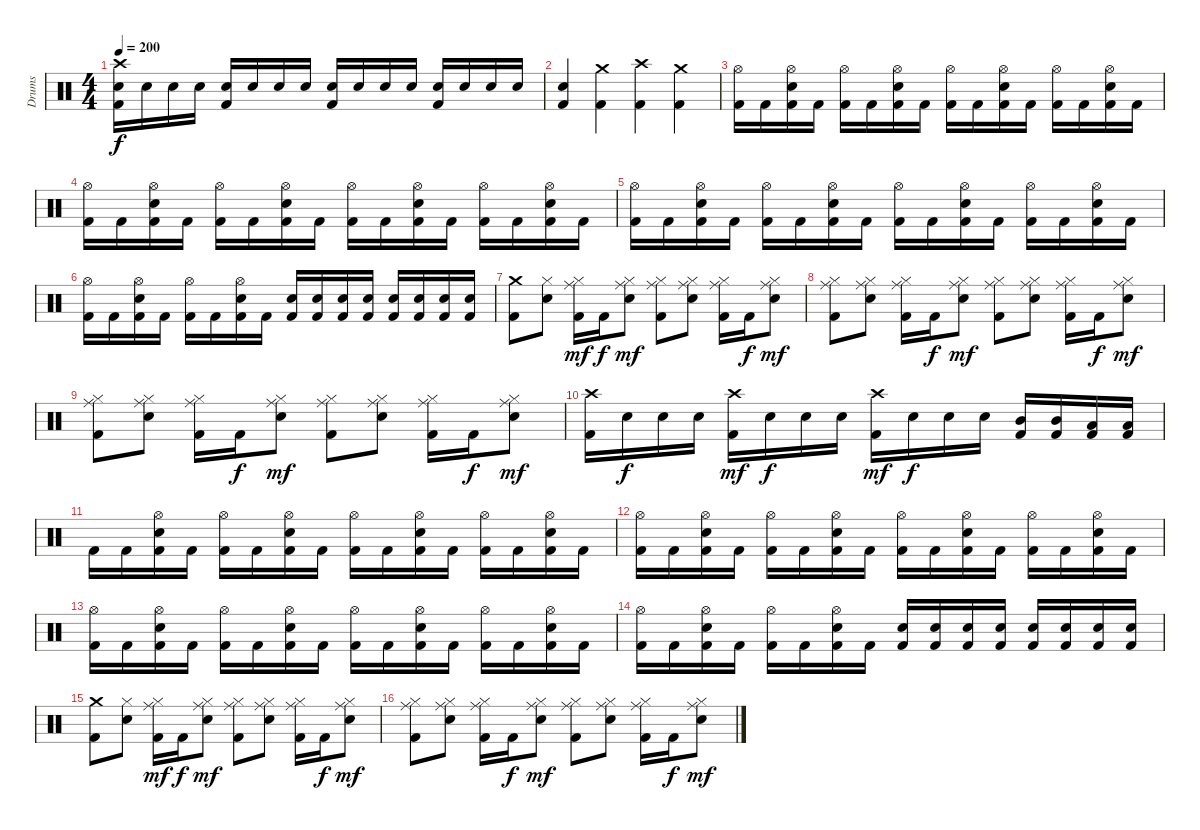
\track ("Drums" "Drums") {instrument percussion}
\staff {score}
\articulation defaults
\ts (4 4)
\tempo 200
\clef neutral
\ks c
("Crash high (hit)" "Snare (hit) 2" "Kick (hit) 2").16{dy f} "Snare (hit) 2".16 "Snare (hit) 2".16 "Snare (hit) 2".16 ("Snare (hit) 2" "Kick (hit) 2").16 "Snare (hit) 2".16 "Snare (hit) 2".16 "Snare (hit) 2".16 ("Snare (hit) 2" "Kick (hit) 2").16 "Snare (hit) 2".16 "Snare (hit) 2".16 "Snare (hit) 2".16 ("Snare (hit) 2" "Kick (hit) 2").16 "Snare (hit) 2".16 "Snare (hit) 2".16 "Snare (hit) 2".16 |
("Snare (hit) 2" "Kick (hit) 2").4 ("Crash medium (hit)" "Kick (hit) 2").4 ("Crash high (hit)" "Kick (hit) 2").4 ("Crash medium (hit)" "Kick (hit) 2").4 |
("Hi-Hat (open)" "Kick (hit) 2").16 "Kick (hit) 2".16 ("Hi-Hat (open)" "Snare (hit) 2" "Kick (hit) 2").16 "Kick (hit) 2".16 ("Hi-Hat (open)" "Kick (hit) 2").16 "Kick (hit) 2".16 ("Hi-Hat (open)" "Snare (hit) 2" "Kick (hit) 2").16 "Kick (hit) 2".16 ("Hi-Hat (open)" "Kick (hit) 2").16 "Kick (hit) 2".16 ("Hi-Hat (open)" "Snare (hit) 2" "Kick (hit) 2").16 "Kick (hit) 2".16 ("Hi-Hat (open)" "Kick (hit) 2").16 "Kick (hit) 2".16 ("Hi-Hat (open)" "Snare (hit) 2" "Kick (hit) 2").16 "Kick (hit) 2".16 |
("Hi-Hat (open)" "Kick (hit) 2").16 "Kick (hit) 2".16 ("Hi-Hat (open)" "Snare (hit) 2" "Kick (hit) 2").16 "Kick (hit) 2".16 ("Hi-Hat (open)" "Kick (hit) 2").16 "Kick (hit) 2".16 ("Hi-Hat (open)" "Snare (hit) 2" "Kick (hit) 2").16 "Kick (hit) 2".16 ("Hi-Hat (open)" "Kick (hit) 2").16 "Kick (hit) 2".16 ("Hi-Hat (open)" "Snare (hit) 2" "Kick (hit) 2").16 "Kick (hit) 2".16 ("Hi-Hat (open)" "Kick (hit) 2").16 "Kick (hit) 2".16 ("Hi-Hat (open)" "Snare (hit) 2" "Kick (hit) 2").16 "Kick (hit) 2".16 |
("Hi-Hat (open)" "Kick (hit) 2").16 "Kick (hit) 2".16 ("Hi-Hat (open)" "Snare (hit) 2" "Kick (hit) 2").16 "Kick (hit) 2".16 ("Hi-Hat (open)" "Kick (hit) 2").16 "Kick (hit) 2".16 ("Hi-Hat (open)" "Snare (hit) 2" "Kick (hit) 2").16 "Kick (hit) 2".16 ("Hi-Hat (open)" "Kick (hit) 2").16 "Kick (hit) 2".16 ("Hi-Hat (open)" "Snare (hit) 2" "Kick (hit) 2").16 "Kick (hit) 2".16 ("Hi-Hat (open)" "Kick (hit) 2").16 "Kick (hit) 2".16 ("Hi-Hat (open)" "Snare (hit) 2" "Kick (hit) 2").16 "Kick (hit) 2".16 |
("Hi-Hat (open)" "Kick (hit) 2").16 "Kick (hit) 2".16 ("Hi-Hat (open)" "Snare (hit) 2" "Kick (hit) 2").16 "Kick (hit) 2".16 ("Hi-Hat (open)" "Kick (hit) 2").16 "Kick (hit) 2".16 ("Hi-Hat (open)" "Snare (hit) 2" "Kick (hit) 2").16 "Kick (hit) 2".16 ("Snare (hit) 2" "Kick (hit) 2").16 ("Snare (hit) 2" "Kick (hit) 2").16 ("Snare (hit) 2" "Kick (hit) 2").16 ("Snare (hit) 2" "Kick (hit) 2").16 ("Snare (hit) 2" "Kick (hit) 2").16 ("Snare (hit) 2" "Kick (hit) 2").16 ("Snare (hit) 2" "Kick (hit) 2").16 ("Snare (hit) 2" "Kick (hit) 2").16 |
("Crash medium (hit)" "Kick (hit) 2").8 ("Hi-Hat (closed)" "Snare (hit) 2").8 ("Hi-Hat (closed)" "Ride (middle)" "Kick (hit) 2").16{dy mf} "Kick (hit) 2".16{dy f} ("Hi-Hat (closed)" "Ride (middle)" "Snare (hit) 2").8{dy mf} ("Hi-Hat (closed)" "Ride (middle)" "Kick (hit) 2").8 ("Hi-Hat (closed)" "Ride (middle)" "Snare (hit) 2").8 ("Hi-Hat (closed)" "Ride (middle)" "Kick (hit) 2").16 "Kick (hit) 2".16{dy f} ("Hi-Hat (closed)" "Ride (middle)" "Snare (hit) 2").8{dy mf} |
("Hi-Hat (closed)" "Ride (middle)" "Kick (hit) 2").8 ("Hi-Hat (closed)" "Ride (middle)" "Snare (hit) 2").8 ("Hi-Hat (closed)" "Ride (middle)" "Kick (hit) 2").16 "Kick (hit) 2".16{dy f} ("Hi-Hat (closed)" "Ride (middle)" "Snare (hit) 2").8{dy mf} ("Hi-Hat (closed)" "Ride (middle)" "Kick (hit) 2").8 ("Hi-Hat (closed)" "Ride (middle)" "Snare (hit) 2").8 ("Hi-Hat (closed)" "Ride (middle)" "Kick (hit) 2").16 "Kick (hit) 2".16{dy f} ("Hi-Hat (closed)" "Ride (middle)" "Snare (hit) 2").8{dy mf} |
("Hi-Hat (closed)" "Ride (middle)" "Kick (hit) 2").8 ("Hi-Hat (closed)" "Ride (middle)" "Snare (hit) 2").8 ("Hi-Hat (closed)" "Ride (middle)" "Kick (hit) 2").16 "Kick (hit) 2".16{dy f} ("Hi-Hat (closed)" "Ride (middle)" "Snare (hit) 2").8{dy mf} ("Hi-Hat (closed)" "Ride (middle)" "Kick (hit) 2").8 ("Hi-Hat (closed)" "Ride (middle)" "Snare (hit) 2").8 ("Hi-Hat (closed)" "Ride (middle)" "Kick (hit) 2").16 "Kick (hit) 2".16{dy f} ("Hi-Hat (closed)" "Ride (middle)" "Snare (hit) 2").8{dy mf} |
("Crash high (hit)" "Kick (hit) 2").16 "Snare (hit) 2".16{dy f} "Snare (hit) 2".16 "Snare (hit) 2".16 ("Crash high (hit)" "Kick (hit) 2").16{dy mf} "Snare (hit) 2".16{dy f} "Snare (hit) 2".16 "Snare (hit) 2".16 ("Crash high (hit)" "Kick (hit) 2").16{dy mf} "Snare (hit) 2".16{dy f} "Snare (hit) 2".16 "Snare (hit) 2".16 ("Mid Tom (hit)" "Kick (hit) 2").16 ("Mid Tom (hit)" "Kick (hit) 2").16 ("Low Tom (hit)" "Kick (hit) 2").16 ("Low Tom (hit)" "Kick (hit) 2").16 |
"Kick (hit) 2".16 "Kick (hit) 2".16 ("Hi-Hat (open)" "Snare (hit) 2" "Kick (hit) 2").16 "Kick (hit) 2".16 ("Hi-Hat (open)" "Kick (hit) 2").16 "Kick (hit) 2".16 ("Hi-Hat (open)" "Snare (hit) 2" "Kick (hit) 2").16 "Kick (hit) 2".16 ("Hi-Hat (open)" "Kick (hit) 2").16 "Kick (hit) 2".16 ("Hi-Hat (open)" "Snare (hit) 2" "Kick (hit) 2").16 "Kick (hit) 2".16 ("Hi-Hat (open)" "Kick (hit) 2").16 "Kick (hit) 2".16 ("Hi-Hat (open)" "Snare (hit) 2" "Kick (hit) 2").16 "Kick (hit) 2".16 |
("Hi-Hat (open)" "Kick (hit) 2").16 "Kick (hit) 2".16 ("Hi-Hat (open)" "Snare (hit) 2" "Kick (hit) 2").16 "Kick (hit) 2".16 ("Hi-Hat (open)" "Kick (hit) 2").16 "Kick (hit) 2".16 ("Hi-Hat (open)" "Snare (hit) 2" "Kick (hit) 2").16 "Kick (hit) 2".16 ("Hi-Hat (open)" "Kick (hit) 2").16 "Kick (hit) 2".16 ("Hi-Hat (open)" "Snare (hit) 2" "Kick (hit) 2").16 "Kick (hit) 2".16 ("Hi-Hat (open)" "Kick (hit) 2").16 "Kick (hit) 2".16 ("Hi-Hat (open)" "Snare (hit) 2" "Kick (hit) 2").16 "Kick (hit) 2".16 |
("Hi-Hat (open)" "Kick (hit) 2").16 "Kick (hit) 2".16 ("Hi-Hat (open)" "Snare (hit) 2" "Kick (hit) 2").16 "Kick (hit) 2".16 ("Hi-Hat (open)" "Kick (hit) 2").16 "Kick (hit) 2".16 ("Hi-Hat (open)" "Snare (hit) 2" "Kick (hit) 2").16 "Kick (hit) 2".16 ("Hi-Hat (open)" "Kick (hit) 2").16 "Kick (hit) 2".16 ("Hi-Hat (open)" "Snare (hit) 2" "Kick (hit) 2").16 "Kick (hit) 2".16 ("Hi-Hat (open)" "Kick (hit) 2").16 "Kick (hit) 2".16 ("Hi-Hat (open)" "Snare (hit) 2" "Kick (hit) 2").16 "Kick (hit) 2".16 |
("Hi-Hat (open)" "Kick (hit) 2").16 "Kick (hit) 2".16 ("Hi-Hat (open)" "Snare (hit) 2" "Kick (hit) 2").16 "Kick (hit) 2".16 ("Hi-Hat (open)" "Kick (hit) 2").16 "Kick (hit) 2".16 ("Hi-Hat (open)" "Snare (hit) 2" "Kick (hit) 2").16 "Kick (hit) 2".16 ("Snare (hit) 2" "Kick (hit) 2").16 ("Snare (hit) 2" "Kick (hit) 2").16 ("Snare (hit) 2" "Kick (hit) 2").16 ("Snare (hit) 2" "Kick (hit) 2").16 ("Snare (hit) 2" "Kick (hit) 2").16 ("Snare (hit) 2" "Kick (hit) 2").16 ("Snare (hit) 2" "Kick (hit) 2").16 ("Snare (hit) 2" "Kick (hit) 2").16 |
("Crash medium (hit)" "Kick (hit) 2").8 ("Hi-Hat (closed)" "Snare (hit) 2").8 ("Hi-Hat (closed)" "Ride (middle)" "Kick (hit) 2").16{dy mf} "Kick (hit) 2".16{dy f} ("Hi-Hat (closed)" "Ride (middle)" "Snare (hit) 2").8{dy mf} ("Hi-Hat (closed)" "Ride (middle)" "Kick (hit) 2").8 ("Hi-Hat (closed)" "Ride (middle)" "Snare (hit) 2").8 ("Hi-Hat (closed)" "Ride (middle)" "Kick (hit) 2").16 "Kick (hit) 2".16{dy f} ("Hi-Hat (closed)" "Ride (middle)" "Snare (hit) 2").8{dy mf} |
("Hi-Hat (closed)" "Ride (middle)" "Kick (hit) 2").8 ("Hi-Hat (closed)" "Ride (middle)" "Snare (hit) 2").8 ("Hi-Hat (closed)" "Ride (middle)" "Kick (hit) 2").16 "Kick (hit) 2".16{dy f} ("Hi-Hat (closed)" "Ride (middle)" "Snare (hit) 2").8{dy mf} ("Hi-Hat (closed)" "Ride (middle)" "Kick (hit) 2").8 ("Hi-Hat (closed)" "Ride (middle)" "Snare (hit) 2").8 ("Hi-Hat (closed)" "Ride (middle)" "Kick (hit) 2").16 "Kick (hit) 2".16{dy f} ("Hi-Hat (closed)" "Ride (middle)" "Snare (hit) 2").8{dy mf}
